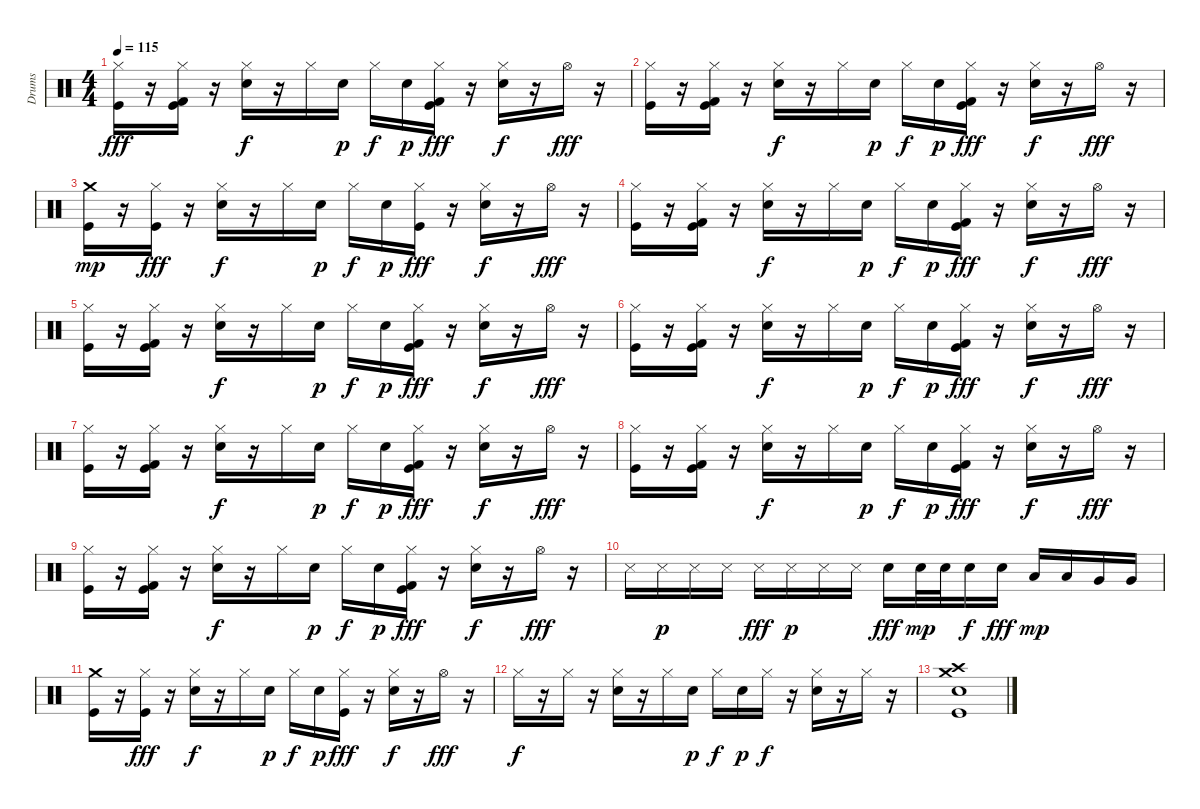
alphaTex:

\track ("Drums" "Drums") {instrument percussion}
\staff {score}
\articulation defaults
\ts (4 4)
\tempo 115
\clef neutral
\ks c
("Kick (hit)" "Hi-Hat (closed)").16{dy fff} r.16 ("Kick (hit)" "Kick (hit) 2" "Hi-Hat (closed)").16 r.16 ("Electric Snare (hit)" "Hi-Hat (closed)").16{dy f} r.16 "Hi-Hat (closed)".16 "Electric Snare (hit)".16{dy p} "Hi-Hat (closed)".16{dy f} "Electric Snare (hit)".16{dy p} ("Kick (hit)" "Kick (hit) 2" "Hi-Hat (closed)").16{dy fff} r.16 ("Electric Snare (hit)" "Hi-Hat (closed)").16{dy f} r.16 "Hi-Hat (open)".16{dy fff} r.16 |
("Kick (hit)" "Hi-Hat (closed)").16 r.16 ("Kick (hit)" "Kick (hit) 2" "Hi-Hat (closed)").16 r.16 ("Electric Snare (hit)" "Hi-Hat (closed)").16{dy f} r.16 "Hi-Hat (closed)".16 "Electric Snare (hit)".16{dy p} "Hi-Hat (closed)".16{dy f} "Electric Snare (hit)".16{dy p} ("Kick (hit)" "Kick (hit) 2" "Hi-Hat (closed)").16{dy fff} r.16 ("Electric Snare (hit)" "Hi-Hat (closed)").16{dy f} r.16 "Hi-Hat (open)".16{dy fff} r.16 |
("Kick (hit)" "Crash medium (hit)").16{dy mp} r.16 ("Kick (hit)" "Hi-Hat (closed)").16{dy fff} r.16 ("Electric Snare (hit)" "Hi-Hat (closed)").16{dy f} r.16 "Hi-Hat (closed)".16 "Electric Snare (hit)".16{dy p} "Hi-Hat (closed)".16{dy f} "Electric Snare (hit)".16{dy p} ("Kick (hit)" "Hi-Hat (closed)").16{dy fff} r.16 ("Electric Snare (hit)" "Hi-Hat (closed)").16{dy f} r.16 "Hi-Hat (open)".16{dy fff} r.16 |
("Kick (hit)" "Hi-Hat (closed)").16 r.16 ("Kick (hit)" "Kick (hit) 2" "Hi-Hat (closed)").16 r.16 ("Electric Snare (hit)" "Hi-Hat (closed)").16{dy f} r.16 "Hi-Hat (closed)".16 "Electric Snare (hit)".16{dy p} "Hi-Hat (closed)".16{dy f} "Electric Snare (hit)".16{dy p} ("Kick (hit)" "Kick (hit) 2" "Hi-Hat (closed)").16{dy fff} r.16 ("Electric Snare (hit)" "Hi-Hat (closed)").16{dy f} r.16 "Hi-Hat (open)".16{dy fff} r.16 |
("Kick (hit)" "Hi-Hat (closed)").16 r.16 ("Kick (hit)" "Kick (hit) 2" "Hi-Hat (closed)").16 r.16 ("Electric Snare (hit)" "Hi-Hat (closed)").16{dy f} r.16 "Hi-Hat (closed)".16 "Electric Snare (hit)".16{dy p} "Hi-Hat (closed)".16{dy f} "Electric Snare (hit)".16{dy p} ("Kick (hit)" "Kick (hit) 2" "Hi-Hat (closed)").16{dy fff} r.16 ("Electric Snare (hit)" "Hi-Hat (closed)").16{dy f} r.16 "Hi-Hat (open)".16{dy fff} r.16 |
("Kick (hit)" "Hi-Hat (closed)").16 r.16 ("Kick (hit)" "Kick (hit) 2" "Hi-Hat (closed)").16 r.16 ("Electric Snare (hit)" "Hi-Hat (closed)").16{dy f} r.16 "Hi-Hat (closed)".16 "Electric Snare (hit)".16{dy p} "Hi-Hat (closed)".16{dy f} "Electric Snare (hit)".16{dy p} ("Kick (hit)" "Kick (hit) 2" "Hi-Hat (closed)").16{dy fff} r.16 ("Electric Snare (hit)" "Hi-Hat (closed)").16{dy f} r.16 "Hi-Hat (open)".16{dy fff} r.16 |
("Kick (hit)" "Hi-Hat (closed)").16 r.16 ("Kick (hit)" "Kick (hit) 2" "Hi-Hat (closed)").16 r.16 ("Electric Snare (hit)" "Hi-Hat (closed)").16{dy f} r.16 "Hi-Hat (closed)".16 "Electric Snare (hit)".16{dy p} "Hi-Hat (closed)".16{dy f} "Electric Snare (hit)".16{dy p} ("Kick (hit)" "Kick (hit) 2" "Hi-Hat (closed)").16{dy fff} r.16 ("Electric Snare (hit)" "Hi-Hat (closed)").16{dy f} r.16 "Hi-Hat (open)".16{dy fff} r.16 |
("Kick (hit)" "Hi-Hat (closed)").16 r.16 ("Kick (hit)" "Kick (hit) 2" "Hi-Hat (closed)").16 r.16 ("Electric Snare (hit)" "Hi-Hat (closed)").16{dy f} r.16 "Hi-Hat (closed)".16 "Electric Snare (hit)".16{dy p} "Hi-Hat (closed)".16{dy f} "Electric Snare (hit)".16{dy p} ("Kick (hit)" "Kick (hit) 2" "Hi-Hat (closed)").16{dy fff} r.16 ("Electric Snare (hit)" "Hi-Hat (closed)").16{dy f} r.16 "Hi-Hat (open)".16{dy fff} r.16 |
("Kick (hit)" "Hi-Hat (closed)").16 r.16 ("Kick (hit)" "Kick (hit) 2" "Hi-Hat (closed)").16 r.16 ("Electric Snare (hit)" "Hi-Hat (closed)").16{dy f} r.16 "Hi-Hat (closed)".16 "Electric Snare (hit)".16{dy p} "Hi-Hat (closed)".16{dy f} "Electric Snare (hit)".16{dy p} ("Kick (hit)" "Kick (hit) 2" "Hi-Hat (closed)").16{dy fff} r.16 ("Electric Snare (hit)" "Hi-Hat (closed)").16{dy f} r.16 "Hi-Hat (open)".16{dy fff} r.16 |
"Snare (side stick) 3".16 "Snare (side stick) 3".16{dy p} "Snare (side stick) 3".16 "Snare (side stick) 3".16 "Snare (side stick) 3".16{dy fff} "Snare (side stick) 3".16{dy p} "Snare (side stick) 3".16 "Snare (side stick) 3".16 "Electric Snare (hit)".16{dy fff} "Electric Snare (hit)".32{dy mp} "Electric Snare (hit)".32 "Electric Snare (hit)".16{dy f} "Electric Snare (hit)".16{dy fff} "Low Tom (hit)".16{dy mp} "Low Tom (hit)".16 "Very Low Tom (hit)".16 "Very Low Tom (hit)".16 |
("Kick (hit)" "Crash medium (hit)").16 r.16 ("Kick (hit)" "Hi-Hat (closed)").16{dy fff} r.16 ("Electric Snare (hit)" "Hi-Hat (closed)").16{dy f} r.16 "Hi-Hat (closed)".16 "Electric Snare (hit)".16{dy p} "Hi-Hat (closed)".16{dy f} "Electric Snare (hit)".16{dy p} ("Kick (hit)" "Hi-Hat (closed)").16{dy fff} r.16 ("Electric Snare (hit)" "Hi-Hat (closed)").16{dy f} r.16 "Hi-Hat (open)".16{dy fff} r.16 |
"Hi-Hat (closed)".16{dy f} r.16 "Hi-Hat (closed)".16 r.16 ("Electric Snare (hit)" "Hi-Hat (closed)").16 r.16 "Hi-Hat (closed)".16 "Electric Snare (hit)".16{dy p} "Hi-Hat (closed)".16{dy f} "Electric Snare (hit)".16{dy p} "Hi-Hat (closed)".16{dy f} r.16 ("Electric Snare (hit)" "Hi-Hat (closed)").16 r.16 "Hi-Hat (closed)".16 r.16 |
("Kick (hit)" "Electric Snare (hit)" "Crash high (hit)" "Crash medium (hit)").1
